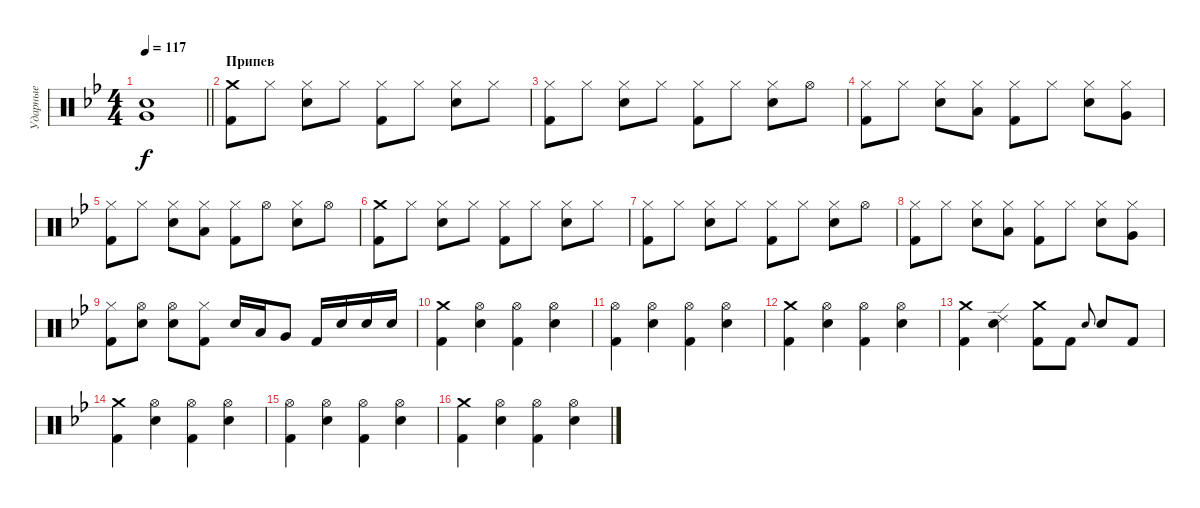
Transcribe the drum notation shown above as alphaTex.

\track ("Ударные" "Ударные") {instrument percussion}
\staff {score}
\articulation defaults
\ts (4 4)
\tempo 117
\clef neutral
\barLineRight lightlight
\ks gminor
("Electric Snare (hit)" "Very Low Tom (hit)").1{dy f} |
\section ("" "Припев")
("Crash medium (hit)" "Kick (hit) 2").8 "Hi-Hat (closed)".8 ("Hi-Hat (closed)" "Electric Snare (hit)").8 "Hi-Hat (closed)".8 ("Hi-Hat (closed)" "Kick (hit) 2").8 "Hi-Hat (closed)".8 ("Hi-Hat (closed)" "Electric Snare (hit)").8 "Hi-Hat (closed)".8 |
("Hi-Hat (closed)" "Kick (hit) 2").8 "Hi-Hat (closed)".8 ("Hi-Hat (closed)" "Electric Snare (hit)").8 "Hi-Hat (closed)".8 ("Hi-Hat (closed)" "Kick (hit) 2").8 "Hi-Hat (closed)".8 ("Hi-Hat (closed)" "Electric Snare (hit)").8 "Hi-Hat (open)".8 |
("Hi-Hat (closed)" "Kick (hit) 2").8 "Hi-Hat (closed)".8 ("Hi-Hat (closed)" "Electric Snare (hit)").8 ("Hi-Hat (closed)" "Low Tom (hit)").8 ("Hi-Hat (closed)" "Kick (hit) 2").8 "Hi-Hat (closed)".8 ("Hi-Hat (closed)" "Electric Snare (hit)").8 ("Hi-Hat (closed)" "Very Low Tom (hit)").8 |
("Hi-Hat (closed)" "Kick (hit) 2").8 "Hi-Hat (closed)".8 ("Hi-Hat (closed)" "Electric Snare (hit)").8 ("Hi-Hat (closed)" "Low Tom (hit)").8 ("Hi-Hat (closed)" "Kick (hit) 2").8 "Hi-Hat (open)".8 ("Hi-Hat (closed)" "Electric Snare (hit)").8 "Hi-Hat (open)".8 |
("Crash medium (hit)" "Kick (hit) 2").8 "Hi-Hat (closed)".8 ("Hi-Hat (closed)" "Electric Snare (hit)").8 "Hi-Hat (closed)".8 ("Hi-Hat (closed)" "Kick (hit) 2").8 "Hi-Hat (closed)".8 ("Hi-Hat (closed)" "Electric Snare (hit)").8 "Hi-Hat (closed)".8 |
("Hi-Hat (closed)" "Kick (hit) 2").8 "Hi-Hat (closed)".8 ("Hi-Hat (closed)" "Electric Snare (hit)").8 "Hi-Hat (closed)".8 ("Hi-Hat (closed)" "Kick (hit) 2").8 "Hi-Hat (closed)".8 ("Hi-Hat (closed)" "Electric Snare (hit)").8 "Hi-Hat (open)".8 |
("Hi-Hat (closed)" "Kick (hit) 2").8 "Hi-Hat (closed)".8 ("Hi-Hat (closed)" "Electric Snare (hit)").8 ("Hi-Hat (closed)" "Low Tom (hit)").8 ("Hi-Hat (closed)" "Kick (hit) 2").8 "Hi-Hat (closed)".8 ("Hi-Hat (closed)" "Electric Snare (hit)").8 ("Hi-Hat (closed)" "Very Low Tom (hit)").8 |
("Hi-Hat (closed)" "Kick (hit) 2").8 ("Hi-Hat (open)" "Electric Snare (hit)").8 ("Hi-Hat (open)" "Electric Snare (hit)").8 ("Hi-Hat (closed)" "Kick (hit) 2").8 "Electric Snare (hit)".16 "Low Tom (hit)".16 "Very Low Tom (hit)".8 "Kick (hit) 2".16 "Electric Snare (hit)".16 "Electric Snare (hit)".16 "Electric Snare (hit)".16 |
("Crash medium (hit)" "Kick (hit) 2").4 ("Hi-Hat (open)" "Electric Snare (hit)").4 ("Hi-Hat (open)" "Kick (hit) 2").4 ("Hi-Hat (open)" "Electric Snare (hit)").4 |
("Hi-Hat (open)" "Kick (hit) 2").4 ("Hi-Hat (open)" "Electric Snare (hit)").4 ("Hi-Hat (open)" "Kick (hit) 2").4 ("Hi-Hat (open)" "Electric Snare (hit)").4 |
("Crash medium (hit)" "Kick (hit) 2").4 ("Hi-Hat (open)" "Electric Snare (hit)").4 ("Hi-Hat (open)" "Kick (hit) 2").4 ("Hi-Hat (open)" "Electric Snare (hit)").4 |
("Crash medium (hit)" "Kick (hit) 2").4 ("Ride (edge) 2" "Electric Snare (hit)").4 ("Crash medium (hit)" "Kick (hit) 2").8 "Kick (hit) 2".8 "Electric Snare (hit)".8{gr onbeat} "Electric Snare (hit)".8 "Kick (hit) 2".8 |
("Crash medium (hit)" "Kick (hit) 2").4 ("Hi-Hat (open)" "Electric Snare (hit)").4 ("Hi-Hat (open)" "Kick (hit) 2").4 ("Hi-Hat (open)" "Electric Snare (hit)").4 |
("Hi-Hat (open)" "Kick (hit) 2").4 ("Hi-Hat (open)" "Electric Snare (hit)").4 ("Hi-Hat (open)" "Kick (hit) 2").4 ("Hi-Hat (open)" "Electric Snare (hit)").4 |
("Crash medium (hit)" "Kick (hit) 2").4 ("Hi-Hat (open)" "Electric Snare (hit)").4 ("Hi-Hat (open)" "Kick (hit) 2").4 ("Hi-Hat (open)" "Electric Snare (hit)").4
